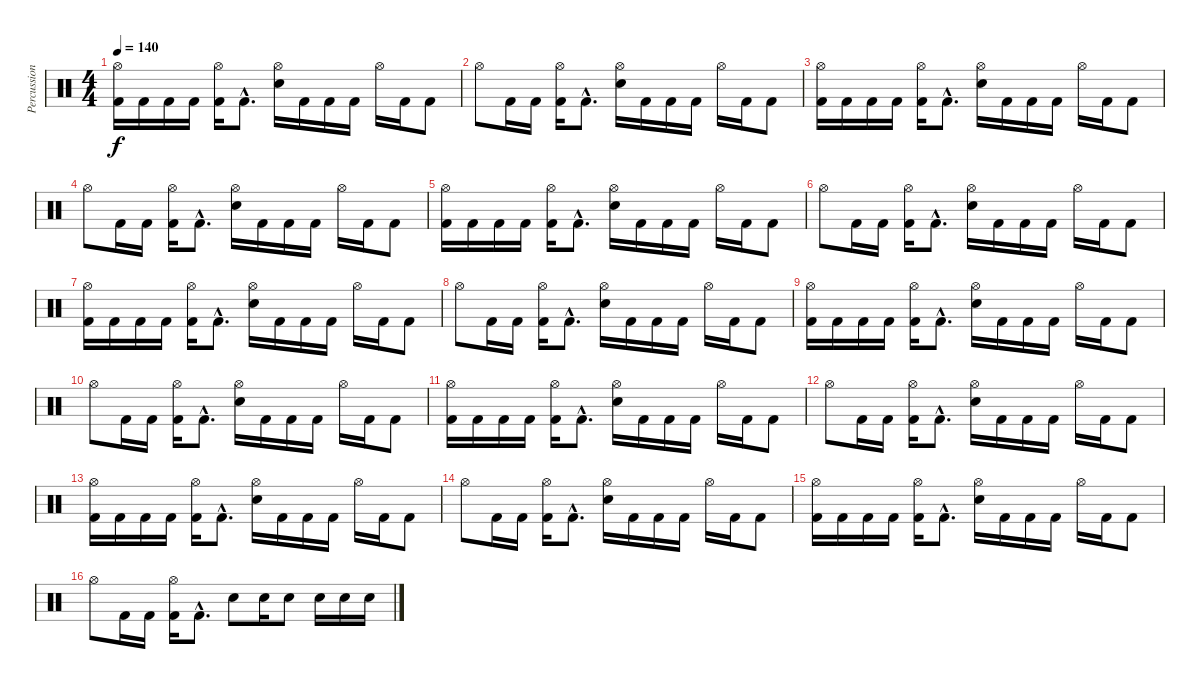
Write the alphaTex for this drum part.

\track ("Percussion" "Percussion") {instrument percussion}
\staff {score}
\articulation defaults
\ts (4 4)
\tempo 140
\clef neutral
\ks c
("Hi-Hat (open)" "Kick (hit) 2").16{dy f} "Kick (hit) 2".16 "Kick (hit) 2".16 "Kick (hit) 2".16 ("Hi-Hat (open)" "Kick (hit) 2").16 "Kick (hit) 2"{hac}.8{d} ("Hi-Hat (open)" "Electric Snare (hit)").16 "Kick (hit) 2".16 "Kick (hit) 2".16 "Kick (hit) 2".16 "Hi-Hat (open)".16 "Kick (hit) 2".16 "Kick (hit) 2".8 |
"Hi-Hat (open)".8 "Kick (hit) 2".16 "Kick (hit) 2".16 ("Hi-Hat (open)" "Kick (hit) 2").16 "Kick (hit) 2"{hac}.8{d} ("Hi-Hat (open)" "Electric Snare (hit)").16 "Kick (hit) 2".16 "Kick (hit) 2".16 "Kick (hit) 2".16 "Hi-Hat (open)".16 "Kick (hit) 2".16 "Kick (hit) 2".8 |
("Hi-Hat (open)" "Kick (hit) 2").16 "Kick (hit) 2".16 "Kick (hit) 2".16 "Kick (hit) 2".16 ("Hi-Hat (open)" "Kick (hit) 2").16 "Kick (hit) 2"{hac}.8{d} ("Hi-Hat (open)" "Electric Snare (hit)").16 "Kick (hit) 2".16 "Kick (hit) 2".16 "Kick (hit) 2".16 "Hi-Hat (open)".16 "Kick (hit) 2".16 "Kick (hit) 2".8 |
"Hi-Hat (open)".8 "Kick (hit) 2".16 "Kick (hit) 2".16 ("Hi-Hat (open)" "Kick (hit) 2").16 "Kick (hit) 2"{hac}.8{d} ("Hi-Hat (open)" "Electric Snare (hit)").16 "Kick (hit) 2".16 "Kick (hit) 2".16 "Kick (hit) 2".16 "Hi-Hat (open)".16 "Kick (hit) 2".16 "Kick (hit) 2".8 |
("Hi-Hat (open)" "Kick (hit) 2").16 "Kick (hit) 2".16 "Kick (hit) 2".16 "Kick (hit) 2".16 ("Hi-Hat (open)" "Kick (hit) 2").16 "Kick (hit) 2"{hac}.8{d} ("Hi-Hat (open)" "Electric Snare (hit)").16 "Kick (hit) 2".16 "Kick (hit) 2".16 "Kick (hit) 2".16 "Hi-Hat (open)".16 "Kick (hit) 2".16 "Kick (hit) 2".8 |
"Hi-Hat (open)".8 "Kick (hit) 2".16 "Kick (hit) 2".16 ("Hi-Hat (open)" "Kick (hit) 2").16 "Kick (hit) 2"{hac}.8{d} ("Hi-Hat (open)" "Electric Snare (hit)").16 "Kick (hit) 2".16 "Kick (hit) 2".16 "Kick (hit) 2".16 "Hi-Hat (open)".16 "Kick (hit) 2".16 "Kick (hit) 2".8 |
("Hi-Hat (open)" "Kick (hit) 2").16 "Kick (hit) 2".16 "Kick (hit) 2".16 "Kick (hit) 2".16 ("Hi-Hat (open)" "Kick (hit) 2").16 "Kick (hit) 2"{hac}.8{d} ("Hi-Hat (open)" "Electric Snare (hit)").16 "Kick (hit) 2".16 "Kick (hit) 2".16 "Kick (hit) 2".16 "Hi-Hat (open)".16 "Kick (hit) 2".16 "Kick (hit) 2".8 |
"Hi-Hat (open)".8 "Kick (hit) 2".16 "Kick (hit) 2".16 ("Hi-Hat (open)" "Kick (hit) 2").16 "Kick (hit) 2"{hac}.8{d} ("Hi-Hat (open)" "Electric Snare (hit)").16 "Kick (hit) 2".16 "Kick (hit) 2".16 "Kick (hit) 2".16 "Hi-Hat (open)".16 "Kick (hit) 2".16 "Kick (hit) 2".8 |
("Hi-Hat (open)" "Kick (hit) 2").16 "Kick (hit) 2".16 "Kick (hit) 2".16 "Kick (hit) 2".16 ("Hi-Hat (open)" "Kick (hit) 2").16 "Kick (hit) 2"{hac}.8{d} ("Hi-Hat (open)" "Electric Snare (hit)").16 "Kick (hit) 2".16 "Kick (hit) 2".16 "Kick (hit) 2".16 "Hi-Hat (open)".16 "Kick (hit) 2".16 "Kick (hit) 2".8 |
"Hi-Hat (open)".8 "Kick (hit) 2".16 "Kick (hit) 2".16 ("Hi-Hat (open)" "Kick (hit) 2").16 "Kick (hit) 2"{hac}.8{d} ("Hi-Hat (open)" "Electric Snare (hit)").16 "Kick (hit) 2".16 "Kick (hit) 2".16 "Kick (hit) 2".16 "Hi-Hat (open)".16 "Kick (hit) 2".16 "Kick (hit) 2".8 |
("Hi-Hat (open)" "Kick (hit) 2").16 "Kick (hit) 2".16 "Kick (hit) 2".16 "Kick (hit) 2".16 ("Hi-Hat (open)" "Kick (hit) 2").16 "Kick (hit) 2"{hac}.8{d} ("Hi-Hat (open)" "Electric Snare (hit)").16 "Kick (hit) 2".16 "Kick (hit) 2".16 "Kick (hit) 2".16 "Hi-Hat (open)".16 "Kick (hit) 2".16 "Kick (hit) 2".8 |
"Hi-Hat (open)".8 "Kick (hit) 2".16 "Kick (hit) 2".16 ("Hi-Hat (open)" "Kick (hit) 2").16 "Kick (hit) 2"{hac}.8{d} ("Hi-Hat (open)" "Electric Snare (hit)").16 "Kick (hit) 2".16 "Kick (hit) 2".16 "Kick (hit) 2".16 "Hi-Hat (open)".16 "Kick (hit) 2".16 "Kick (hit) 2".8 |
("Hi-Hat (open)" "Kick (hit) 2").16 "Kick (hit) 2".16 "Kick (hit) 2".16 "Kick (hit) 2".16 ("Hi-Hat (open)" "Kick (hit) 2").16 "Kick (hit) 2"{hac}.8{d} ("Hi-Hat (open)" "Electric Snare (hit)").16 "Kick (hit) 2".16 "Kick (hit) 2".16 "Kick (hit) 2".16 "Hi-Hat (open)".16 "Kick (hit) 2".16 "Kick (hit) 2".8 |
"Hi-Hat (open)".8 "Kick (hit) 2".16 "Kick (hit) 2".16 ("Hi-Hat (open)" "Kick (hit) 2").16 "Kick (hit) 2"{hac}.8{d} ("Hi-Hat (open)" "Electric Snare (hit)").16 "Kick (hit) 2".16 "Kick (hit) 2".16 "Kick (hit) 2".16 "Hi-Hat (open)".16 "Kick (hit) 2".16 "Kick (hit) 2".8 |
("Hi-Hat (open)" "Kick (hit) 2").16 "Kick (hit) 2".16 "Kick (hit) 2".16 "Kick (hit) 2".16 ("Hi-Hat (open)" "Kick (hit) 2").16 "Kick (hit) 2"{hac}.8{d} ("Hi-Hat (open)" "Electric Snare (hit)").16 "Kick (hit) 2".16 "Kick (hit) 2".16 "Kick (hit) 2".16 "Hi-Hat (open)".16 "Kick (hit) 2".16 "Kick (hit) 2".8 |
"Hi-Hat (open)".8 "Kick (hit) 2".16 "Kick (hit) 2".16 ("Hi-Hat (open)" "Kick (hit) 2").16 "Kick (hit) 2"{hac}.8{d} "Electric Snare (hit)".8 "Electric Snare (hit)".16 "Electric Snare (hit)".8 "Electric Snare (hit)".16 "Electric Snare (hit)".16 "Electric Snare (hit)".16
